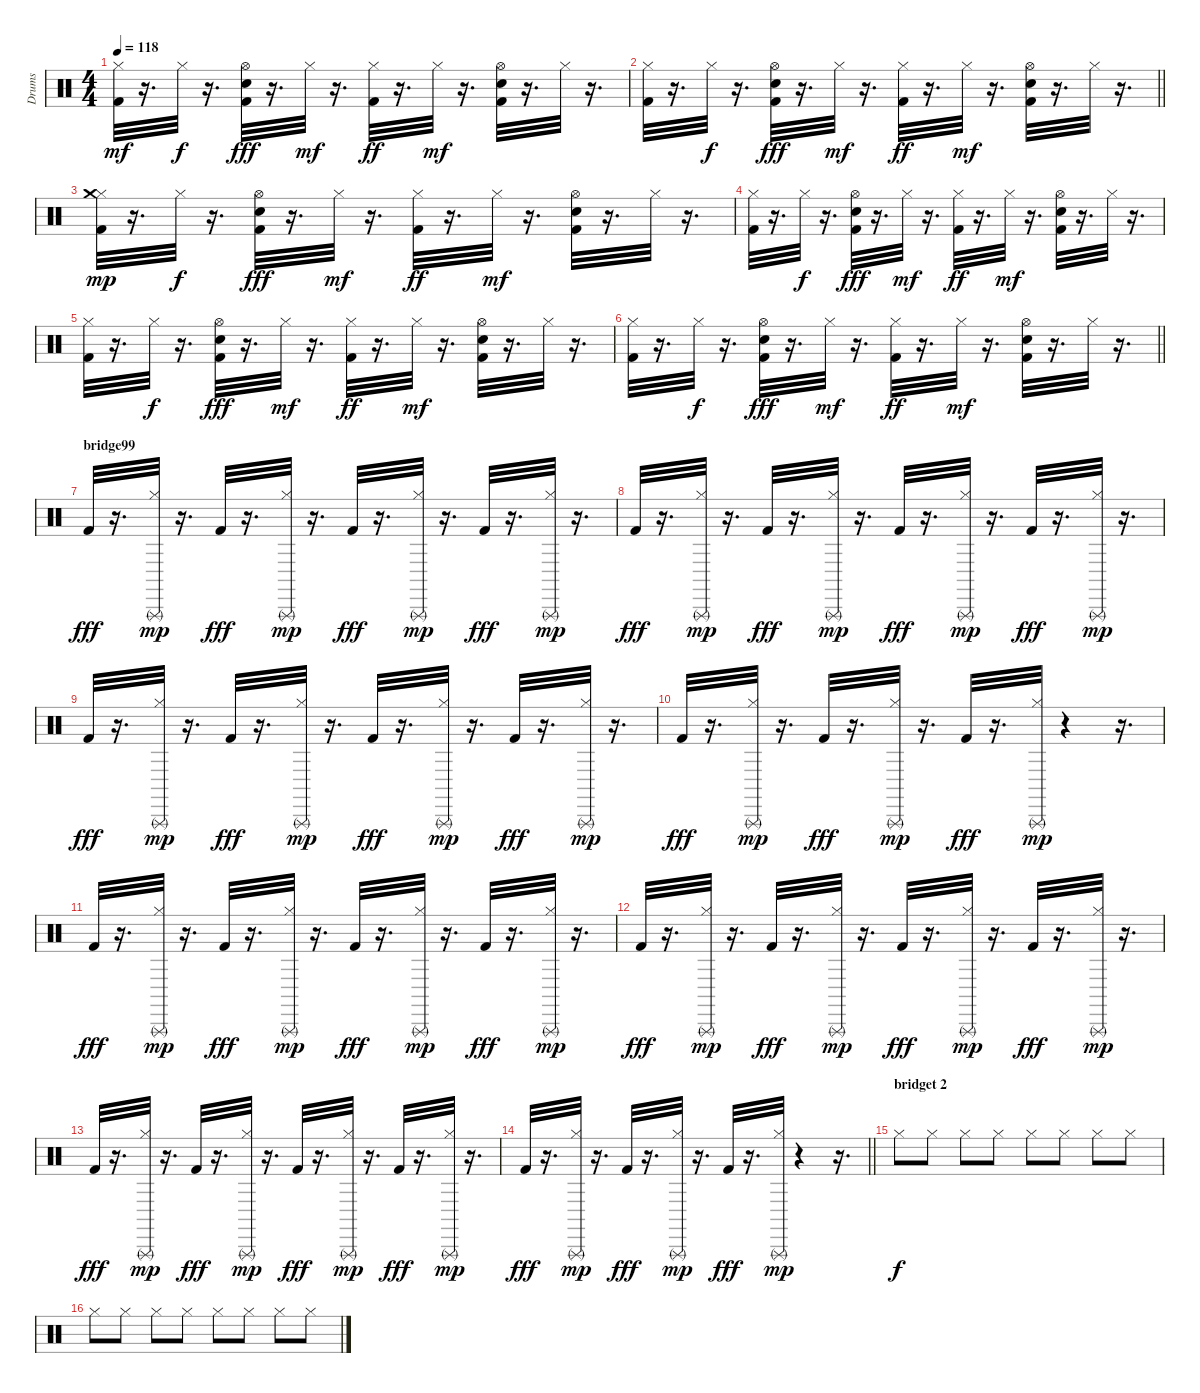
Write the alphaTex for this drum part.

\track ("Drums" "Drums") {instrument percussion}
\staff {score}
\articulation defaults
\ts (4 4)
\tempo 118
\clef neutral
\ks c
("Kick (hit) 2" "Hi-Hat (closed)").32{dy mf} r.16{d} "Hi-Hat (closed)".32{dy f} r.16{d} ("Kick (hit) 2" "Electric Snare (hit)" "Hi-Hat (open)").32{dy fff} r.16{d} "Hi-Hat (closed)".32{dy mf} r.16{d} ("Kick (hit) 2" "Hi-Hat (closed)").32{dy ff} r.16{d} "Hi-Hat (closed)".32{dy mf} r.16{d} ("Kick (hit) 2" "Electric Snare (hit)" "Hi-Hat (open)").32 r.16{d} "Hi-Hat (closed)".32 r.16{d} |
\barLineRight lightlight
("Kick (hit) 2" "Hi-Hat (closed)").32 r.16{d} "Hi-Hat (closed)".32{dy f} r.16{d} ("Kick (hit) 2" "Electric Snare (hit)" "Hi-Hat (open)").32{dy fff} r.16{d} "Hi-Hat (closed)".32{dy mf} r.16{d} ("Kick (hit) 2" "Hi-Hat (closed)").32{dy ff} r.16{d} "Hi-Hat (closed)".32{dy mf} r.16{d} ("Kick (hit) 2" "Electric Snare (hit)" "Hi-Hat (open)").32 r.16{d} "Hi-Hat (closed)".32 r.16{d} |
("Kick (hit) 2" "Hi-Hat (closed)" "Crash medium (hit)").32{dy mp} r.16{d} "Hi-Hat (closed)".32{dy f} r.16{d} ("Kick (hit) 2" "Electric Snare (hit)" "Hi-Hat (open)").32{dy fff} r.16{d} "Hi-Hat (closed)".32{dy mf} r.16{d} ("Kick (hit) 2" "Hi-Hat (closed)").32{dy ff} r.16{d} "Hi-Hat (closed)".32{dy mf} r.16{d} ("Kick (hit) 2" "Electric Snare (hit)" "Hi-Hat (open)").32 r.16{d} "Hi-Hat (closed)".32 r.16{d} |
("Kick (hit) 2" "Hi-Hat (closed)").32 r.16{d} "Hi-Hat (closed)".32{dy f} r.16{d} ("Kick (hit) 2" "Electric Snare (hit)" "Hi-Hat (open)").32{dy fff} r.16{d} "Hi-Hat (closed)".32{dy mf} r.16{d} ("Kick (hit) 2" "Hi-Hat (closed)").32{dy ff} r.16{d} "Hi-Hat (closed)".32{dy mf} r.16{d} ("Kick (hit) 2" "Electric Snare (hit)" "Hi-Hat (open)").32 r.16{d} "Hi-Hat (closed)".32 r.16{d} |
("Kick (hit) 2" "Hi-Hat (closed)").32 r.16{d} "Hi-Hat (closed)".32{dy f} r.16{d} ("Kick (hit) 2" "Electric Snare (hit)" "Hi-Hat (open)").32{dy fff} r.16{d} "Hi-Hat (closed)".32{dy mf} r.16{d} ("Kick (hit) 2" "Hi-Hat (closed)").32{dy ff} r.16{d} "Hi-Hat (closed)".32{dy mf} r.16{d} ("Kick (hit) 2" "Electric Snare (hit)" "Hi-Hat (open)").32 r.16{d} "Hi-Hat (closed)".32 r.16{d} |
\barLineRight lightlight
("Kick (hit) 2" "Hi-Hat (closed)").32 r.16{d} "Hi-Hat (closed)".32{dy f} r.16{d} ("Kick (hit) 2" "Electric Snare (hit)" "Hi-Hat (open)").32{dy fff} r.16{d} "Hi-Hat (closed)".32{dy mf} r.16{d} ("Kick (hit) 2" "Hi-Hat (closed)").32{dy ff} r.16{d} "Hi-Hat (closed)".32{dy mf} r.16{d} ("Kick (hit) 2" "Electric Snare (hit)" "Hi-Hat (open)").32 r.16{d} "Hi-Hat (closed)".32 r.16{d} |
\section ("" "bridge99")
"Kick (hit) 2".32{dy fff} r.16{d} ("Hi-Hat (closed)" "Triangle (rnute)").32{dy mp} r.16{d} "Kick (hit) 2".32{dy fff} r.16{d} ("Hi-Hat (closed)" "Triangle (rnute)").32{dy mp} r.16{d} "Kick (hit) 2".32{dy fff} r.16{d} ("Hi-Hat (closed)" "Triangle (rnute)").32{dy mp} r.16{d} "Kick (hit) 2".32{dy fff} r.16{d} ("Hi-Hat (closed)" "Triangle (rnute)").32{dy mp} r.16{d} |
"Kick (hit) 2".32{dy fff} r.16{d} ("Hi-Hat (closed)" "Triangle (rnute)").32{dy mp} r.16{d} "Kick (hit) 2".32{dy fff} r.16{d} ("Hi-Hat (closed)" "Triangle (rnute)").32{dy mp} r.16{d} "Kick (hit) 2".32{dy fff} r.16{d} ("Hi-Hat (closed)" "Triangle (rnute)").32{dy mp} r.16{d} "Kick (hit) 2".32{dy fff} r.16{d} ("Hi-Hat (closed)" "Triangle (rnute)").32{dy mp} r.16{d} |
"Kick (hit) 2".32{dy fff} r.16{d} ("Hi-Hat (closed)" "Triangle (rnute)").32{dy mp} r.16{d} "Kick (hit) 2".32{dy fff} r.16{d} ("Hi-Hat (closed)" "Triangle (rnute)").32{dy mp} r.16{d} "Kick (hit) 2".32{dy fff} r.16{d} ("Hi-Hat (closed)" "Triangle (rnute)").32{dy mp} r.16{d} "Kick (hit) 2".32{dy fff} r.16{d} ("Hi-Hat (closed)" "Triangle (rnute)").32{dy mp} r.16{d} |
"Kick (hit) 2".32{dy fff} r.16{d} ("Hi-Hat (closed)" "Triangle (rnute)").32{dy mp} r.16{d} "Kick (hit) 2".32{dy fff} r.16{d} ("Hi-Hat (closed)" "Triangle (rnute)").32{dy mp} r.16{d} "Kick (hit) 2".32{dy fff} r.16{d} ("Hi-Hat (closed)" "Triangle (rnute)").32{dy mp} r.4 r.16{d} |
"Kick (hit) 2".32{dy fff} r.16{d} ("Hi-Hat (closed)" "Triangle (rnute)").32{dy mp} r.16{d} "Kick (hit) 2".32{dy fff} r.16{d} ("Hi-Hat (closed)" "Triangle (rnute)").32{dy mp} r.16{d} "Kick (hit) 2".32{dy fff} r.16{d} ("Hi-Hat (closed)" "Triangle (rnute)").32{dy mp} r.16{d} "Kick (hit) 2".32{dy fff} r.16{d} ("Hi-Hat (closed)" "Triangle (rnute)").32{dy mp} r.16{d} |
"Kick (hit) 2".32{dy fff} r.16{d} ("Hi-Hat (closed)" "Triangle (rnute)").32{dy mp} r.16{d} "Kick (hit) 2".32{dy fff} r.16{d} ("Hi-Hat (closed)" "Triangle (rnute)").32{dy mp} r.16{d} "Kick (hit) 2".32{dy fff} r.16{d} ("Hi-Hat (closed)" "Triangle (rnute)").32{dy mp} r.16{d} "Kick (hit) 2".32{dy fff} r.16{d} ("Hi-Hat (closed)" "Triangle (rnute)").32{dy mp} r.16{d} |
"Kick (hit) 2".32{dy fff} r.16{d} ("Hi-Hat (closed)" "Triangle (rnute)").32{dy mp} r.16{d} "Kick (hit) 2".32{dy fff} r.16{d} ("Hi-Hat (closed)" "Triangle (rnute)").32{dy mp} r.16{d} "Kick (hit) 2".32{dy fff} r.16{d} ("Hi-Hat (closed)" "Triangle (rnute)").32{dy mp} r.16{d} "Kick (hit) 2".32{dy fff} r.16{d} ("Hi-Hat (closed)" "Triangle (rnute)").32{dy mp} r.16{d} |
\barLineRight lightlight "Kick (hit) 2".32{dy fff}
r.16{d} ("Hi-Hat (closed)" "Triangle (rnute)").32{dy mp} r.16{d} "Kick (hit) 2".32{dy fff} r.16{d} ("Hi-Hat (closed)" "Triangle (rnute)").32{dy mp} r.16{d} "Kick (hit) 2".32{dy fff} r.16{d} ("Hi-Hat (closed)" "Triangle (rnute)").32{dy mp} r.4 r.16{d} |
\section ("" "bridget 2")
"Hi-Hat (closed)".8{dy f} "Hi-Hat (closed)".8 "Hi-Hat (closed)".8 "Hi-Hat (closed)".8 "Hi-Hat (closed)".8 "Hi-Hat (closed)".8 "Hi-Hat (closed)".8 "Hi-Hat (closed)".8 |
"Hi-Hat (closed)".8 "Hi-Hat (closed)".8 "Hi-Hat (closed)".8 "Hi-Hat (closed)".8 "Hi-Hat (closed)".8 "Hi-Hat (closed)".8 "Hi-Hat (closed)".8 "Hi-Hat (closed)".8
